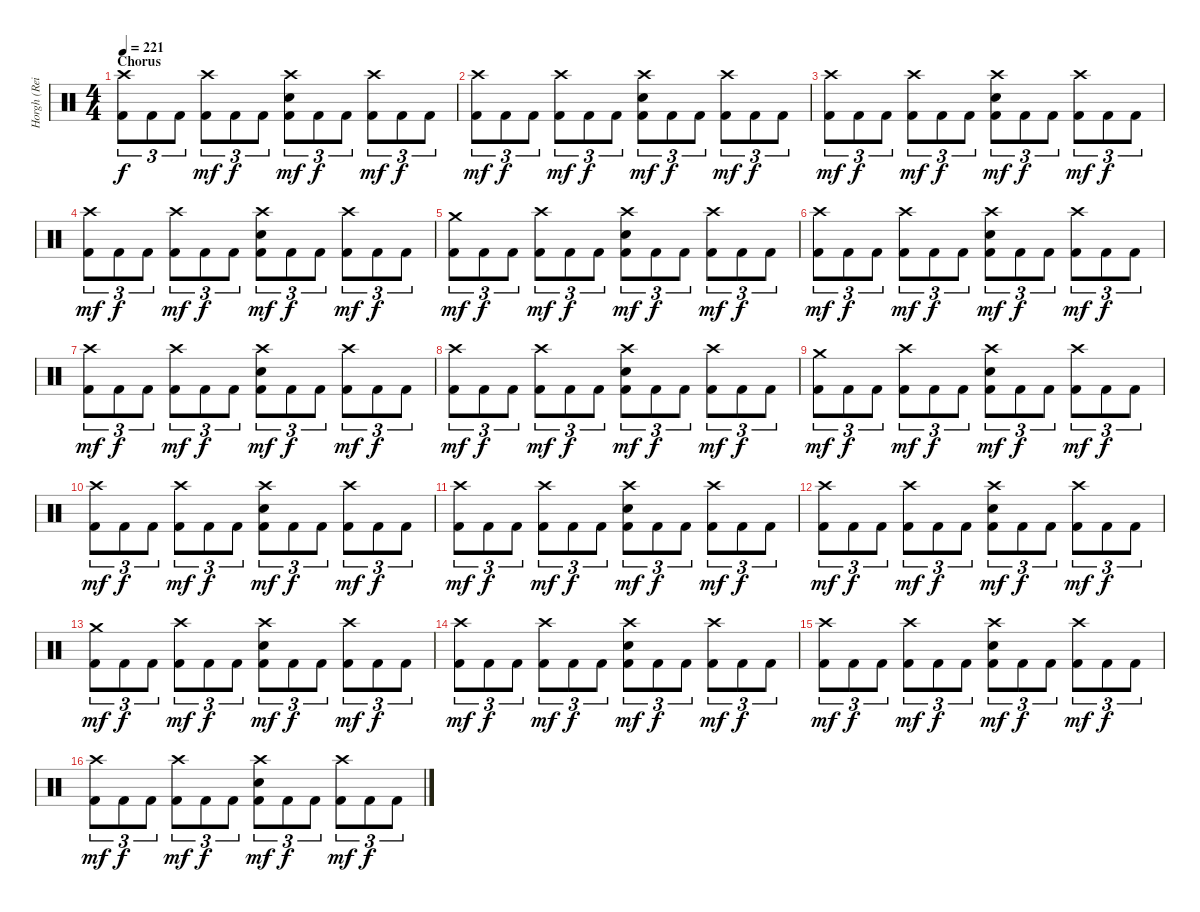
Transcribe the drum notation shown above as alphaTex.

\track ("Horgh (Reidar Horghagen)" "Horgh (Rei") {instrument percussion}
\staff {score}
\articulation defaults
\ts (4 4)
\section ("" "Chorus")
\tempo 221
\clef neutral
\ks c
("Crash high (hit)" "Kick (hit) 2").8{tu (3 2) dy f} "Kick (hit) 2".8{tu (3 2)} "Kick (hit) 2".8{tu (3 2)} ("Crash high (hit)" "Kick (hit) 2").8{tu (3 2) dy mf} "Kick (hit) 2".8{tu (3 2) dy f} "Kick (hit) 2".8{tu (3 2)} ("Crash high (hit)" "Snare (hit) 2" "Kick (hit) 2").8{tu (3 2) dy mf} "Kick (hit) 2".8{tu (3 2) dy f} "Kick (hit) 2".8{tu (3 2)} ("Crash high (hit)" "Kick (hit) 2").8{tu (3 2) dy mf} "Kick (hit) 2".8{tu (3 2) dy f} "Kick (hit) 2".8{tu (3 2)} |
("Crash high (hit)" "Kick (hit) 2").8{tu (3 2) dy mf} "Kick (hit) 2".8{tu (3 2) dy f} "Kick (hit) 2".8{tu (3 2)} ("Crash high (hit)" "Kick (hit) 2").8{tu (3 2) dy mf} "Kick (hit) 2".8{tu (3 2) dy f} "Kick (hit) 2".8{tu (3 2)} ("Crash high (hit)" "Snare (hit) 2" "Kick (hit) 2").8{tu (3 2) dy mf} "Kick (hit) 2".8{tu (3 2) dy f} "Kick (hit) 2".8{tu (3 2)} ("Crash high (hit)" "Kick (hit) 2").8{tu (3 2) dy mf} "Kick (hit) 2".8{tu (3 2) dy f} "Kick (hit) 2".8{tu (3 2)} |
("Crash high (hit)" "Kick (hit) 2").8{tu (3 2) dy mf} "Kick (hit) 2".8{tu (3 2) dy f} "Kick (hit) 2".8{tu (3 2)} ("Crash high (hit)" "Kick (hit) 2").8{tu (3 2) dy mf} "Kick (hit) 2".8{tu (3 2) dy f} "Kick (hit) 2".8{tu (3 2)} ("Crash high (hit)" "Snare (hit) 2" "Kick (hit) 2").8{tu (3 2) dy mf} "Kick (hit) 2".8{tu (3 2) dy f} "Kick (hit) 2".8{tu (3 2)} ("Crash high (hit)" "Kick (hit) 2").8{tu (3 2) dy mf} "Kick (hit) 2".8{tu (3 2) dy f} "Kick (hit) 2".8{tu (3 2)} |
("Crash high (hit)" "Kick (hit) 2").8{tu (3 2) dy mf} "Kick (hit) 2".8{tu (3 2) dy f} "Kick (hit) 2".8{tu (3 2)} ("Crash high (hit)" "Kick (hit) 2").8{tu (3 2) dy mf} "Kick (hit) 2".8{tu (3 2) dy f} "Kick (hit) 2".8{tu (3 2)} ("Crash high (hit)" "Snare (hit) 2" "Kick (hit) 2").8{tu (3 2) dy mf} "Kick (hit) 2".8{tu (3 2) dy f} "Kick (hit) 2".8{tu (3 2)} ("Crash high (hit)" "Kick (hit) 2").8{tu (3 2) dy mf} "Kick (hit) 2".8{tu (3 2) dy f} "Kick (hit) 2".8{tu (3 2)} |
("Crash medium (hit)" "Kick (hit) 2").8{tu (3 2) dy mf} "Kick (hit) 2".8{tu (3 2) dy f} "Kick (hit) 2".8{tu (3 2)} ("Crash high (hit)" "Kick (hit) 2").8{tu (3 2) dy mf} "Kick (hit) 2".8{tu (3 2) dy f} "Kick (hit) 2".8{tu (3 2)} ("Crash high (hit)" "Snare (hit) 2" "Kick (hit) 2").8{tu (3 2) dy mf} "Kick (hit) 2".8{tu (3 2) dy f} "Kick (hit) 2".8{tu (3 2)} ("Crash high (hit)" "Kick (hit) 2").8{tu (3 2) dy mf} "Kick (hit) 2".8{tu (3 2) dy f} "Kick (hit) 2".8{tu (3 2)} |
("Crash high (hit)" "Kick (hit) 2").8{tu (3 2) dy mf} "Kick (hit) 2".8{tu (3 2) dy f} "Kick (hit) 2".8{tu (3 2)} ("Crash high (hit)" "Kick (hit) 2").8{tu (3 2) dy mf} "Kick (hit) 2".8{tu (3 2) dy f} "Kick (hit) 2".8{tu (3 2)} ("Crash high (hit)" "Snare (hit) 2" "Kick (hit) 2").8{tu (3 2) dy mf} "Kick (hit) 2".8{tu (3 2) dy f} "Kick (hit) 2".8{tu (3 2)} ("Crash high (hit)" "Kick (hit) 2").8{tu (3 2) dy mf} "Kick (hit) 2".8{tu (3 2) dy f} "Kick (hit) 2".8{tu (3 2)} |
("Crash high (hit)" "Kick (hit) 2").8{tu (3 2) dy mf} "Kick (hit) 2".8{tu (3 2) dy f} "Kick (hit) 2".8{tu (3 2)} ("Crash high (hit)" "Kick (hit) 2").8{tu (3 2) dy mf} "Kick (hit) 2".8{tu (3 2) dy f} "Kick (hit) 2".8{tu (3 2)} ("Crash high (hit)" "Snare (hit) 2" "Kick (hit) 2").8{tu (3 2) dy mf} "Kick (hit) 2".8{tu (3 2) dy f} "Kick (hit) 2".8{tu (3 2)} ("Crash high (hit)" "Kick (hit) 2").8{tu (3 2) dy mf} "Kick (hit) 2".8{tu (3 2) dy f} "Kick (hit) 2".8{tu (3 2)} |
("Crash high (hit)" "Kick (hit) 2").8{tu (3 2) dy mf} "Kick (hit) 2".8{tu (3 2) dy f} "Kick (hit) 2".8{tu (3 2)} ("Crash high (hit)" "Kick (hit) 2").8{tu (3 2) dy mf} "Kick (hit) 2".8{tu (3 2) dy f} "Kick (hit) 2".8{tu (3 2)} ("Crash high (hit)" "Snare (hit) 2" "Kick (hit) 2").8{tu (3 2) dy mf} "Kick (hit) 2".8{tu (3 2) dy f} "Kick (hit) 2".8{tu (3 2)} ("Crash high (hit)" "Kick (hit) 2").8{tu (3 2) dy mf} "Kick (hit) 2".8{tu (3 2) dy f} "Kick (hit) 2".8{tu (3 2)} |
("Crash medium (hit)" "Kick (hit) 2").8{tu (3 2) dy mf} "Kick (hit) 2".8{tu (3 2) dy f} "Kick (hit) 2".8{tu (3 2)} ("Crash high (hit)" "Kick (hit) 2").8{tu (3 2) dy mf} "Kick (hit) 2".8{tu (3 2) dy f} "Kick (hit) 2".8{tu (3 2)} ("Crash high (hit)" "Snare (hit) 2" "Kick (hit) 2").8{tu (3 2) dy mf} "Kick (hit) 2".8{tu (3 2) dy f} "Kick (hit) 2".8{tu (3 2)} ("Crash high (hit)" "Kick (hit) 2").8{tu (3 2) dy mf} "Kick (hit) 2".8{tu (3 2) dy f} "Kick (hit) 2".8{tu (3 2)} |
("Crash high (hit)" "Kick (hit) 2").8{tu (3 2) dy mf} "Kick (hit) 2".8{tu (3 2) dy f} "Kick (hit) 2".8{tu (3 2)} ("Crash high (hit)" "Kick (hit) 2").8{tu (3 2) dy mf} "Kick (hit) 2".8{tu (3 2) dy f} "Kick (hit) 2".8{tu (3 2)} ("Crash high (hit)" "Snare (hit) 2" "Kick (hit) 2").8{tu (3 2) dy mf} "Kick (hit) 2".8{tu (3 2) dy f} "Kick (hit) 2".8{tu (3 2)} ("Crash high (hit)" "Kick (hit) 2").8{tu (3 2) dy mf} "Kick (hit) 2".8{tu (3 2) dy f} "Kick (hit) 2".8{tu (3 2)} |
("Crash high (hit)" "Kick (hit) 2").8{tu (3 2) dy mf} "Kick (hit) 2".8{tu (3 2) dy f} "Kick (hit) 2".8{tu (3 2)} ("Crash high (hit)" "Kick (hit) 2").8{tu (3 2) dy mf} "Kick (hit) 2".8{tu (3 2) dy f} "Kick (hit) 2".8{tu (3 2)} ("Crash high (hit)" "Snare (hit) 2" "Kick (hit) 2").8{tu (3 2) dy mf} "Kick (hit) 2".8{tu (3 2) dy f} "Kick (hit) 2".8{tu (3 2)} ("Crash high (hit)" "Kick (hit) 2").8{tu (3 2) dy mf} "Kick (hit) 2".8{tu (3 2) dy f} "Kick (hit) 2".8{tu (3 2)} |
("Crash high (hit)" "Kick (hit) 2").8{tu (3 2) dy mf} "Kick (hit) 2".8{tu (3 2) dy f} "Kick (hit) 2".8{tu (3 2)} ("Crash high (hit)" "Kick (hit) 2").8{tu (3 2) dy mf} "Kick (hit) 2".8{tu (3 2) dy f} "Kick (hit) 2".8{tu (3 2)} ("Crash high (hit)" "Snare (hit) 2" "Kick (hit) 2").8{tu (3 2) dy mf} "Kick (hit) 2".8{tu (3 2) dy f} "Kick (hit) 2".8{tu (3 2)} ("Crash high (hit)" "Kick (hit) 2").8{tu (3 2) dy mf} "Kick (hit) 2".8{tu (3 2) dy f} "Kick (hit) 2".8{tu (3 2)} |
("Crash medium (hit)" "Kick (hit) 2").8{tu (3 2) dy mf} "Kick (hit) 2".8{tu (3 2) dy f} "Kick (hit) 2".8{tu (3 2)} ("Crash high (hit)" "Kick (hit) 2").8{tu (3 2) dy mf} "Kick (hit) 2".8{tu (3 2) dy f} "Kick (hit) 2".8{tu (3 2)} ("Crash high (hit)" "Snare (hit) 2" "Kick (hit) 2").8{tu (3 2) dy mf} "Kick (hit) 2".8{tu (3 2) dy f} "Kick (hit) 2".8{tu (3 2)} ("Crash high (hit)" "Kick (hit) 2").8{tu (3 2) dy mf} "Kick (hit) 2".8{tu (3 2) dy f} "Kick (hit) 2".8{tu (3 2)} |
("Crash high (hit)" "Kick (hit) 2").8{tu (3 2) dy mf} "Kick (hit) 2".8{tu (3 2) dy f} "Kick (hit) 2".8{tu (3 2)} ("Crash high (hit)" "Kick (hit) 2").8{tu (3 2) dy mf} "Kick (hit) 2".8{tu (3 2) dy f} "Kick (hit) 2".8{tu (3 2)} ("Crash high (hit)" "Snare (hit) 2" "Kick (hit) 2").8{tu (3 2) dy mf} "Kick (hit) 2".8{tu (3 2) dy f} "Kick (hit) 2".8{tu (3 2)} ("Crash high (hit)" "Kick (hit) 2").8{tu (3 2) dy mf} "Kick (hit) 2".8{tu (3 2) dy f} "Kick (hit) 2".8{tu (3 2)} |
("Crash high (hit)" "Kick (hit) 2").8{tu (3 2) dy mf} "Kick (hit) 2".8{tu (3 2) dy f} "Kick (hit) 2".8{tu (3 2)} ("Crash high (hit)" "Kick (hit) 2").8{tu (3 2) dy mf} "Kick (hit) 2".8{tu (3 2) dy f} "Kick (hit) 2".8{tu (3 2)} ("Crash high (hit)" "Snare (hit) 2" "Kick (hit) 2").8{tu (3 2) dy mf} "Kick (hit) 2".8{tu (3 2) dy f} "Kick (hit) 2".8{tu (3 2)} ("Crash high (hit)" "Kick (hit) 2").8{tu (3 2) dy mf} "Kick (hit) 2".8{tu (3 2) dy f} "Kick (hit) 2".8{tu (3 2)} |
("Crash high (hit)" "Kick (hit) 2").8{tu (3 2) dy mf} "Kick (hit) 2".8{tu (3 2) dy f} "Kick (hit) 2".8{tu (3 2)} ("Crash high (hit)" "Kick (hit) 2").8{tu (3 2) dy mf} "Kick (hit) 2".8{tu (3 2) dy f} "Kick (hit) 2".8{tu (3 2)} ("Crash high (hit)" "Snare (hit) 2" "Kick (hit) 2").8{tu (3 2) dy mf} "Kick (hit) 2".8{tu (3 2) dy f} "Kick (hit) 2".8{tu (3 2)} ("Crash high (hit)" "Kick (hit) 2").8{tu (3 2) dy mf} "Kick (hit) 2".8{tu (3 2) dy f} "Kick (hit) 2".8{tu (3 2)}
